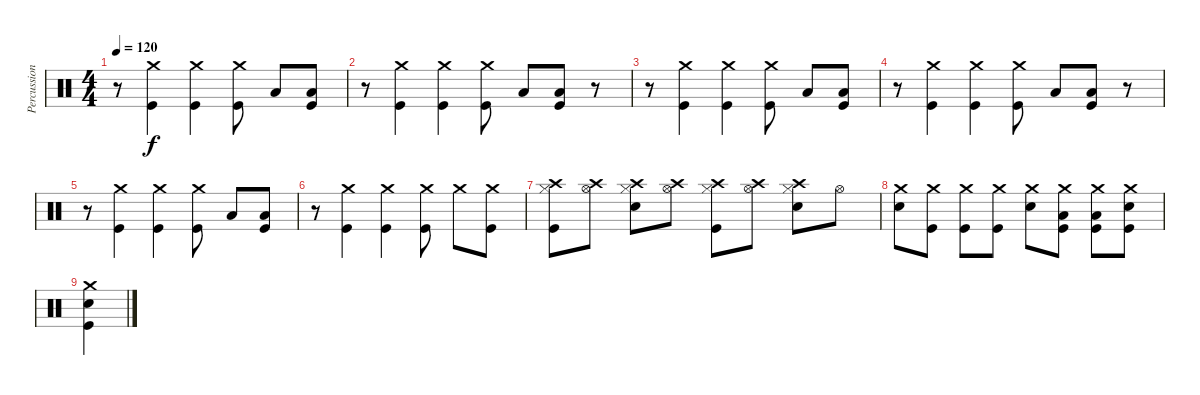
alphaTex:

\track ("Percussion" "Percussion") {instrument percussion}
\staff {score}
\articulation defaults
\ts (4 4)
\tempo 120
\clef neutral
\ks c
r.8{dy f} ("Crash medium (hit)" "Kick (hit)").4 ("Crash medium (hit)" "Kick (hit)").4 ("Crash medium (hit)" "Kick (hit)").8 "Low Tom (hit)".8 ("Low Floor Tom (hit)" "Kick (hit)").8 |
r.8 ("Crash medium (hit)" "Kick (hit)").4 ("Crash medium (hit)" "Kick (hit)").4 ("Crash medium (hit)" "Kick (hit)").8 "Low Floor Tom (hit)".8 ("Low Tom (hit)" "Kick (hit)").8 r.8 |
r.8 ("Crash medium (hit)" "Kick (hit)").4 ("Crash medium (hit)" "Kick (hit)").4 ("Crash medium (hit)" "Kick (hit)").8 "Low Tom (hit)".8 ("Low Floor Tom (hit)" "Kick (hit)").8 |
r.8 ("Crash medium (hit)" "Kick (hit)").4 ("Crash medium (hit)" "Kick (hit)").4 ("Crash medium (hit)" "Kick (hit)").8 "Low Floor Tom (hit)".8 ("Low Tom (hit)" "Kick (hit)").8 r.8 |
r.8 ("Crash medium (hit)" "Kick (hit)").4 ("Crash medium (hit)" "Kick (hit)").4 ("Crash medium (hit)" "Kick (hit)").8 "Low Tom (hit)".8 ("Low Floor Tom (hit)" "Kick (hit)").8 |
r.8 ("Crash medium (hit)" "Kick (hit)").4 ("Crash medium (hit)" "Kick (hit)").4 ("Crash medium (hit)" "Kick (hit)").8 "Crash medium (hit)".8 ("Crash medium (hit)" "Kick (hit)").8 |
("Crash high (hit)" "Hi-Hat (closed)" "Kick (hit)").8 ("Crash high (hit)" "Hi-Hat (open)").8 ("Crash high (hit)" "Snare (hit) 2" "Hi-Hat (closed)").8 ("Crash high (hit)" "Hi-Hat (open)").8 ("Crash high (hit)" "Hi-Hat (closed)" "Kick (hit)").8 ("Crash high (hit)" "Hi-Hat (open)").8 ("Crash high (hit)" "Snare (hit) 2" "Hi-Hat (closed)").8 "Hi-Hat (open)".8 |
("Crash medium (hit)" "Snare (hit) 2").8 ("Crash medium (hit)" "Kick (hit)").8 ("Crash medium (hit)" "Kick (hit)").8 ("Crash medium (hit)" "Kick (hit)").8 ("Crash medium (hit)" "Snare (hit) 2").8 ("Crash medium (hit)" "Low Tom (hit)" "Kick (hit)").8 ("Crash medium (hit)" "Low Tom (hit)" "Kick (hit)").8 ("Crash medium (hit)" "Snare (hit) 2" "Kick (hit)").8 |
("Crash medium (hit)" "Snare (hit) 2" "Kick (hit)").4
